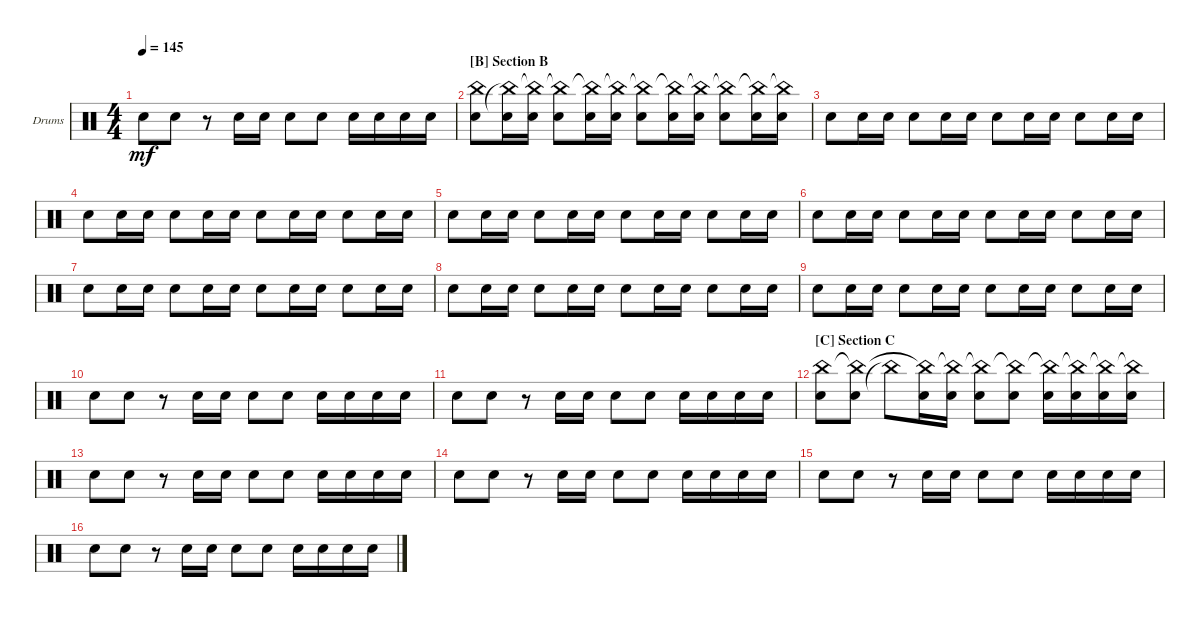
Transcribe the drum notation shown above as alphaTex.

\defaultSystemsLayout 4
\bracketExtendMode groupsimilarinstruments
\firstSystemTrackNameOrientation horizontal
\otherSystemsTrackNameOrientation horizontal
\track ("Drumkit" "Drums") {instrument percussion}
\staff {score}
\articulation defaults
\ts (4 4)
\tempo 145
\clef neutral
\scale
0.333333
\ks c "Snare (hit) 2".8{dy mf} "Snare (hit) 2".8
r.8 "Snare (hit) 2".16 "Snare (hit) 2".16 "Snare (hit) 2".8 "Snare (hit) 2".8 "Snare (hit) 2".16 "Snare (hit) 2".16 "Snare (hit) 2".16 "Snare (hit) 2".16 |
\section ("B" "Section B")
\scale
0.333333 ("China (hit)" "Snare (hit) 2").8 ("Snare (hit) 2" "China (hit)"{t}).16 ("Snare (hit) 2" "China (hit)"{t}).16 ("Snare (hit) 2" "China (hit)"{t}).8 ("Snare (hit) 2" "China (hit)"{t}).16 ("Snare (hit) 2" "China (hit)"{t}).16 ("Snare (hit) 2" "China (hit)"{t}).8 ("Snare (hit) 2" "China (hit)"{t}).16 ("Snare (hit) 2" "China (hit)"{t}).16 ("Snare (hit) 2" "China (hit)"{t}).8 ("Snare (hit) 2" "China (hit)"{t}).16 ("Snare (hit) 2" "China (hit)"{t}).16 |
\scale
0.333333 "Snare (hit) 2".8 "Snare (hit) 2".16 "Snare (hit) 2".16 "Snare (hit) 2".8 "Snare (hit) 2".16 "Snare (hit) 2".16 "Snare (hit) 2".8 "Snare (hit) 2".16 "Snare (hit) 2".16 "Snare (hit) 2".8 "Snare (hit) 2".16 "Snare (hit) 2".16 |
\scale
0.333333 "Snare (hit) 2".8 "Snare (hit) 2".16 "Snare (hit) 2".16 "Snare (hit) 2".8 "Snare (hit) 2".16 "Snare (hit) 2".16 "Snare (hit) 2".8 "Snare (hit) 2".16 "Snare (hit) 2".16 "Snare (hit) 2".8 "Snare (hit) 2".16 "Snare (hit) 2".16 |
\scale
0.333333 "Snare (hit) 2".8 "Snare (hit) 2".16 "Snare (hit) 2".16 "Snare (hit) 2".8 "Snare (hit) 2".16 "Snare (hit) 2".16 "Snare (hit) 2".8 "Snare (hit) 2".16 "Snare (hit) 2".16 "Snare (hit) 2".8 "Snare (hit) 2".16 "Snare (hit) 2".16 |
\scale
0.333333 "Snare (hit) 2".8 "Snare (hit) 2".16 "Snare (hit) 2".16 "Snare (hit) 2".8 "Snare (hit) 2".16 "Snare (hit) 2".16 "Snare (hit) 2".8 "Snare (hit) 2".16 "Snare (hit) 2".16 "Snare (hit) 2".8 "Snare (hit) 2".16 "Snare (hit) 2".16 |
\scale
0.333333 "Snare (hit) 2".8 "Snare (hit) 2".16 "Snare (hit) 2".16 "Snare (hit) 2".8 "Snare (hit) 2".16 "Snare (hit) 2".16 "Snare (hit) 2".8 "Snare (hit) 2".16 "Snare (hit) 2".16 "Snare (hit) 2".8 "Snare (hit) 2".16 "Snare (hit) 2".16 |
\scale
0.333333 "Snare (hit) 2".8 "Snare (hit) 2".16 "Snare (hit) 2".16 "Snare (hit) 2".8 "Snare (hit) 2".16 "Snare (hit) 2".16 "Snare (hit) 2".8 "Snare (hit) 2".16 "Snare (hit) 2".16 "Snare (hit) 2".8 "Snare (hit) 2".16 "Snare (hit) 2".16 |
\scale
0.333333 "Snare (hit) 2".8 "Snare (hit) 2".16 "Snare (hit) 2".16 "Snare (hit) 2".8 "Snare (hit) 2".16 "Snare (hit) 2".16 "Snare (hit) 2".8 "Snare (hit) 2".16 "Snare (hit) 2".16 "Snare (hit) 2".8 "Snare (hit) 2".16 "Snare (hit) 2".16 |
\scale
0.333333 "Snare (hit) 2".8 "Snare (hit) 2".8 r.8 "Snare (hit) 2".16 "Snare (hit) 2".16 "Snare (hit) 2".8 "Snare (hit) 2".8 "Snare (hit) 2".16 "Snare (hit) 2".16 "Snare (hit) 2".16 "Snare (hit) 2".16 |
\scale
0.333333 "Snare (hit) 2".8 "Snare (hit) 2".8 r.8 "Snare (hit) 2".16 "Snare (hit) 2".16 "Snare (hit) 2".8 "Snare (hit) 2".8 "Snare (hit) 2".16 "Snare (hit) 2".16 "Snare (hit) 2".16 "Snare (hit) 2".16 |
\section ("C" "Section C")
\scale
0.333333 ("Snare (hit) 2" "China (hit)").8 ("Snare (hit) 2" "China (hit)"{t}).8 "China (hit)"{t}.8 ("Snare (hit) 2" "China (hit)"{t}).16 ("Snare (hit) 2" "China (hit)"{t}).16 ("Snare (hit) 2" "China (hit)"{t}).8 ("Snare (hit) 2" "China (hit)"{t}).8 ("Snare (hit) 2" "China (hit)"{t}).16 ("Snare (hit) 2" "China (hit)"{t}).16 ("Snare (hit) 2" "China (hit)"{t}).16 ("Snare (hit) 2" "China (hit)"{t}).16 |
\scale
0.333333 "Snare (hit) 2".8 "Snare (hit) 2".8 r.8 "Snare (hit) 2".16 "Snare (hit) 2".16 "Snare (hit) 2".8 "Snare (hit) 2".8 "Snare (hit) 2".16 "Snare (hit) 2".16 "Snare (hit) 2".16 "Snare (hit) 2".16 |
\scale
0.333333 "Snare (hit) 2".8 "Snare (hit) 2".8 r.8 "Snare (hit) 2".16 "Snare (hit) 2".16 "Snare (hit) 2".8 "Snare (hit) 2".8 "Snare (hit) 2".16 "Snare (hit) 2".16 "Snare (hit) 2".16 "Snare (hit) 2".16 |
\scale
0.333333 "Snare (hit) 2".8 "Snare (hit) 2".8 r.8 "Snare (hit) 2".16 "Snare (hit) 2".16 "Snare (hit) 2".8 "Snare (hit) 2".8 "Snare (hit) 2".16 "Snare (hit) 2".16 "Snare (hit) 2".16 "Snare (hit) 2".16 |
\scale
0.333333 "Snare (hit) 2".8 "Snare (hit) 2".8 r.8 "Snare (hit) 2".16 "Snare (hit) 2".16 "Snare (hit) 2".8 "Snare (hit) 2".8 "Snare (hit) 2".16 "Snare (hit) 2".16 "Snare (hit) 2".16 "Snare (hit) 2".16
